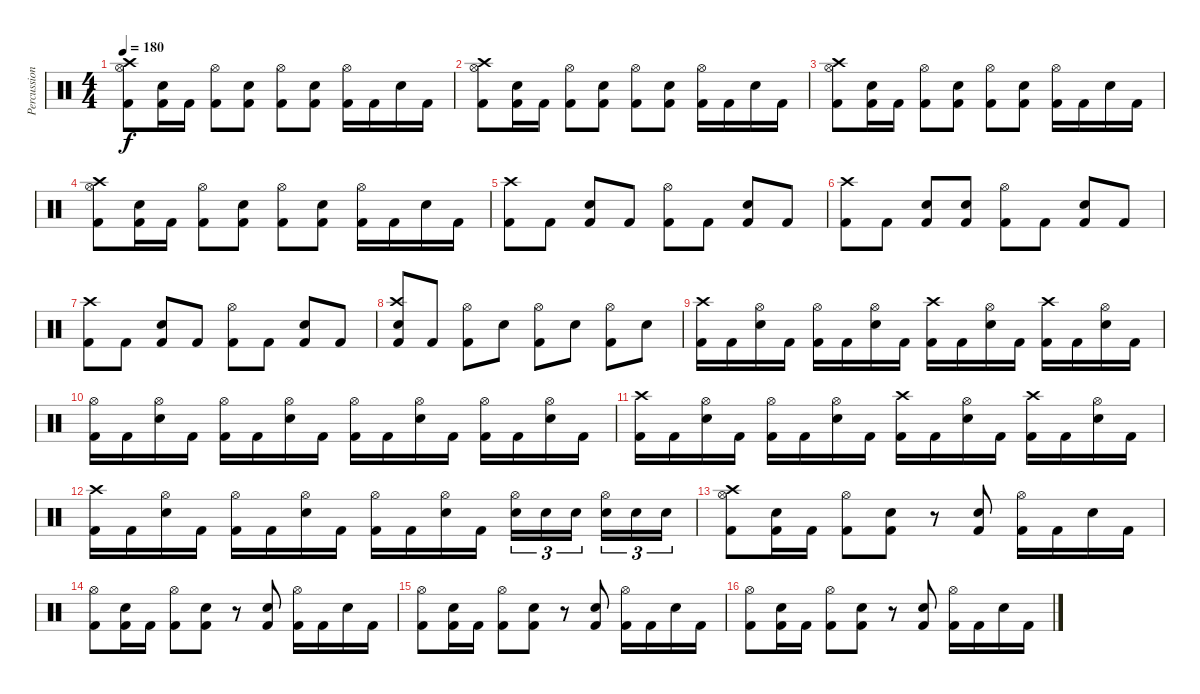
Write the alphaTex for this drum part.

\track ("Percussion" "Percussion") {instrument percussion}
\staff {score}
\articulation defaults
\ts (4 4)
\tempo 180
\clef neutral
\ks c
("Hi-Hat (open)" "Kick (hit) 2" "Crash high (hit)").8{dy f} ("Electric Snare (hit)" "Kick (hit) 2").16 "Kick (hit) 2".16 ("Hi-Hat (open)" "Kick (hit) 2").8 ("Electric Snare (hit)" "Kick (hit) 2").8 ("Hi-Hat (open)" "Kick (hit) 2").8 ("Electric Snare (hit)" "Kick (hit) 2").8 ("Hi-Hat (open)" "Kick (hit) 2").16 "Kick (hit) 2".16 "Electric Snare (hit)".16 "Kick (hit) 2".16 |
("Hi-Hat (open)" "Kick (hit) 2" "Crash high (hit)").8 ("Electric Snare (hit)" "Kick (hit) 2").16 "Kick (hit) 2".16 ("Hi-Hat (open)" "Kick (hit) 2").8 ("Electric Snare (hit)" "Kick (hit) 2").8 ("Hi-Hat (open)" "Kick (hit) 2").8 ("Electric Snare (hit)" "Kick (hit) 2").8 ("Hi-Hat (open)" "Kick (hit) 2").16 "Kick (hit) 2".16 "Electric Snare (hit)".16 "Kick (hit) 2".16 |
("Hi-Hat (open)" "Kick (hit) 2" "Crash high (hit)").8 ("Electric Snare (hit)" "Kick (hit) 2").16 "Kick (hit) 2".16 ("Hi-Hat (open)" "Kick (hit) 2").8 ("Electric Snare (hit)" "Kick (hit) 2").8 ("Hi-Hat (open)" "Kick (hit) 2").8 ("Electric Snare (hit)" "Kick (hit) 2").8 ("Hi-Hat (open)" "Kick (hit) 2").16 "Kick (hit) 2".16 "Electric Snare (hit)".16 "Kick (hit) 2".16 |
("Hi-Hat (open)" "Kick (hit) 2" "Crash high (hit)").8 ("Electric Snare (hit)" "Kick (hit) 2").16 "Kick (hit) 2".16 ("Hi-Hat (open)" "Kick (hit) 2").8 ("Electric Snare (hit)" "Kick (hit) 2").8 ("Hi-Hat (open)" "Kick (hit) 2").8 ("Electric Snare (hit)" "Kick (hit) 2").8 ("Hi-Hat (open)" "Kick (hit) 2").16 "Kick (hit) 2".16 "Electric Snare (hit)".16 "Kick (hit) 2".16 |
("Crash high (hit)" "Kick (hit) 2").8 "Kick (hit) 2".8 ("Electric Snare (hit)" "Kick (hit) 2").8 "Kick (hit) 2".8 ("Hi-Hat (open)" "Kick (hit) 2").8 "Kick (hit) 2".8 ("Electric Snare (hit)" "Kick (hit) 2").8 "Kick (hit) 2".8 |
("Crash high (hit)" "Kick (hit) 2").8 "Kick (hit) 2".8 ("Electric Snare (hit)" "Kick (hit) 2").8 ("Electric Snare (hit)" "Kick (hit) 2").8 ("Hi-Hat (open)" "Kick (hit) 2").8 "Kick (hit) 2".8 ("Electric Snare (hit)" "Kick (hit) 2").8 "Kick (hit) 2".8 |
("Crash high (hit)" "Kick (hit) 2").8 "Kick (hit) 2".8 ("Electric Snare (hit)" "Kick (hit) 2").8 "Kick (hit) 2".8 ("Hi-Hat (open)" "Kick (hit) 2").8 "Kick (hit) 2".8 ("Electric Snare (hit)" "Kick (hit) 2").8 "Kick (hit) 2".8 |
("Electric Snare (hit)" "Kick (hit) 2" "Crash high (hit)").8 "Kick (hit) 2".8 ("Kick (hit) 2" "Hi-Hat (open)").8 "Electric Snare (hit)".8 ("Kick (hit) 2" "Hi-Hat (open)").8 "Electric Snare (hit)".8 ("Kick (hit) 2" "Hi-Hat (open)").8 "Electric Snare (hit)".8 |
("Crash high (hit)" "Kick (hit) 2").16 "Kick (hit) 2".16 ("Hi-Hat (open)" "Electric Snare (hit)").16 "Kick (hit) 2".16 ("Hi-Hat (open)" "Kick (hit) 2").16 "Kick (hit) 2".16 ("Hi-Hat (open)" "Electric Snare (hit)").16 "Kick (hit) 2".16 ("Crash high (hit)" "Kick (hit) 2").16 "Kick (hit) 2".16 ("Hi-Hat (open)" "Electric Snare (hit)").16 "Kick (hit) 2".16 ("Crash high (hit)" "Kick (hit) 2").16 "Kick (hit) 2".16 ("Hi-Hat (open)" "Electric Snare (hit)").16 "Kick (hit) 2".16 |
("Hi-Hat (open)" "Kick (hit) 2").16 "Kick (hit) 2".16 ("Hi-Hat (open)" "Electric Snare (hit)").16 "Kick (hit) 2".16 ("Hi-Hat (open)" "Kick (hit) 2").16 "Kick (hit) 2".16 ("Hi-Hat (open)" "Electric Snare (hit)").16 "Kick (hit) 2".16 ("Hi-Hat (open)" "Kick (hit) 2").16 "Kick (hit) 2".16 ("Hi-Hat (open)" "Electric Snare (hit)").16 "Kick (hit) 2".16 ("Hi-Hat (open)" "Kick (hit) 2").16 "Kick (hit) 2".16 ("Hi-Hat (open)" "Electric Snare (hit)").16 "Kick (hit) 2".16 |
("Crash high (hit)" "Kick (hit) 2").16 "Kick (hit) 2".16 ("Hi-Hat (open)" "Electric Snare (hit)").16 "Kick (hit) 2".16 ("Hi-Hat (open)" "Kick (hit) 2").16 "Kick (hit) 2".16 ("Hi-Hat (open)" "Electric Snare (hit)").16 "Kick (hit) 2".16 ("Crash high (hit)" "Kick (hit) 2").16 "Kick (hit) 2".16 ("Hi-Hat (open)" "Electric Snare (hit)").16 "Kick (hit) 2".16 ("Crash high (hit)" "Kick (hit) 2").16 "Kick (hit) 2".16 ("Hi-Hat (open)" "Electric Snare (hit)").16 "Kick (hit) 2".16 |
("Crash high (hit)" "Kick (hit) 2").16 "Kick (hit) 2".16 ("Hi-Hat (open)" "Electric Snare (hit)").16 "Kick (hit) 2".16 ("Hi-Hat (open)" "Kick (hit) 2").16 "Kick (hit) 2".16 ("Hi-Hat (open)" "Electric Snare (hit)").16 "Kick (hit) 2".16 ("Hi-Hat (open)" "Kick (hit) 2").16 "Kick (hit) 2".16 ("Hi-Hat (open)" "Electric Snare (hit)").16 "Kick (hit) 2".16 ("Hi-Hat (open)" "Electric Snare (hit)").16{tu (3 2)} "Electric Snare (hit)".16{tu (3 2)} "Electric Snare (hit)".16{tu (3 2)} ("Hi-Hat (open)" "Electric Snare (hit)").16{tu (3 2)} "Electric Snare (hit)".16{tu (3 2)} "Electric Snare (hit)".16{tu (3 2)} |
("Hi-Hat (open)" "Kick (hit) 2" "Crash high (hit)").8 ("Electric Snare (hit)" "Kick (hit) 2").16 "Kick (hit) 2".16 ("Hi-Hat (open)" "Kick (hit) 2").8 ("Electric Snare (hit)" "Kick (hit) 2").8 r.8 ("Electric Snare (hit)" "Kick (hit) 2").8 ("Hi-Hat (open)" "Kick (hit) 2").16 "Kick (hit) 2".16 "Electric Snare (hit)".16 "Kick (hit) 2".16 |
("Hi-Hat (open)" "Kick (hit) 2").8 ("Electric Snare (hit)" "Kick (hit) 2").16 "Kick (hit) 2".16 ("Hi-Hat (open)" "Kick (hit) 2").8 ("Electric Snare (hit)" "Kick (hit) 2").8 r.8 ("Electric Snare (hit)" "Kick (hit) 2").8 ("Hi-Hat (open)" "Kick (hit) 2").16 "Kick (hit) 2".16 "Electric Snare (hit)".16 "Kick (hit) 2".16 |
("Hi-Hat (open)" "Kick (hit) 2").8 ("Electric Snare (hit)" "Kick (hit) 2").16 "Kick (hit) 2".16 ("Hi-Hat (open)" "Kick (hit) 2").8 ("Electric Snare (hit)" "Kick (hit) 2").8 r.8 ("Electric Snare (hit)" "Kick (hit) 2").8 ("Hi-Hat (open)" "Kick (hit) 2").16 "Kick (hit) 2".16 "Electric Snare (hit)".16 "Kick (hit) 2".16 |
("Hi-Hat (open)" "Kick (hit) 2").8 ("Electric Snare (hit)" "Kick (hit) 2").16 "Kick (hit) 2".16 ("Hi-Hat (open)" "Kick (hit) 2").8 ("Electric Snare (hit)" "Kick (hit) 2").8 r.8 ("Electric Snare (hit)" "Kick (hit) 2").8 ("Hi-Hat (open)" "Kick (hit) 2").16 "Kick (hit) 2".16 "Electric Snare (hit)".16 "Kick (hit) 2".16
